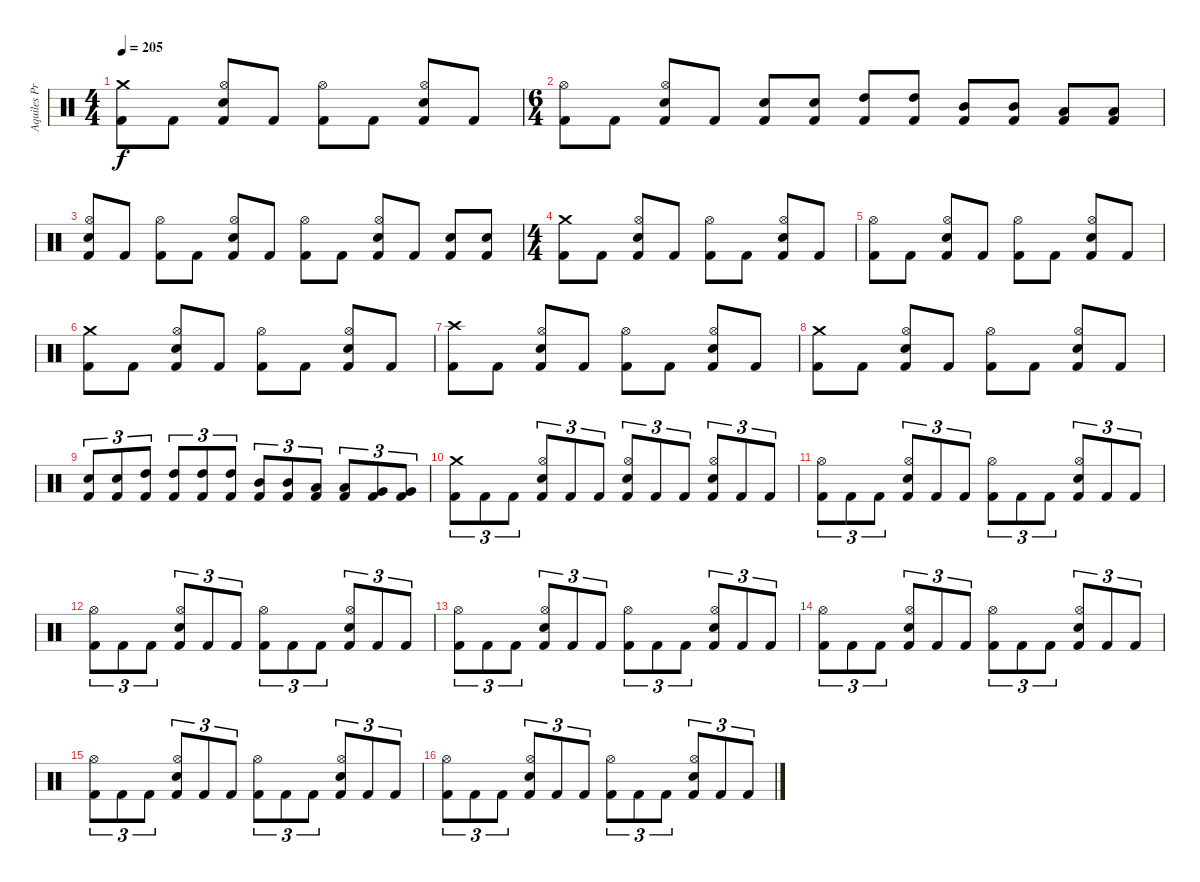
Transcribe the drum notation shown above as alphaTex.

\track ("Aquiles Priester" "Aquiles Pr") {instrument percussion}
\staff {score}
\articulation defaults
\ts (4 4)
\tempo 205
\clef neutral
\ks c
("Crash medium (hit)" "Kick (hit) 2").8{dy f} "Kick (hit) 2".8 ("Hi-Hat (open)" "Electric Snare (hit)" "Kick (hit) 2").8 "Kick (hit) 2".8 ("Hi-Hat (open)" "Kick (hit) 2").8 "Kick (hit) 2".8 ("Hi-Hat (open)" "Electric Snare (hit)" "Kick (hit) 2").8 "Kick (hit) 2".8 |
\ts (6 4)
("Hi-Hat (open)" "Kick (hit) 2").8 "Kick (hit) 2".8 ("Hi-Hat (open)" "Electric Snare (hit)" "Kick (hit) 2").8 "Kick (hit) 2".8 ("Electric Snare (hit)" "Kick (hit) 2").8 ("Electric Snare (hit)" "Kick (hit) 2").8 ("High Tom (hit)" "Kick (hit) 2").8 ("High Tom (hit)" "Kick (hit) 2").8 ("Mid Tom (hit)" "Kick (hit) 2").8 ("Mid Tom (hit)" "Kick (hit) 2").8 ("Low Tom (hit)" "Kick (hit) 2").8 ("Low Tom (hit)" "Kick (hit) 2").8 |
("Hi-Hat (open)" "Electric Snare (hit)" "Kick (hit) 2").8 "Kick (hit) 2".8 ("Hi-Hat (open)" "Kick (hit) 2").8 "Kick (hit) 2".8 ("Hi-Hat (open)" "Electric Snare (hit)" "Kick (hit) 2").8 "Kick (hit) 2".8 ("Hi-Hat (open)" "Kick (hit) 2").8 "Kick (hit) 2".8 ("Hi-Hat (open)" "Electric Snare (hit)" "Kick (hit) 2").8 "Kick (hit) 2".8 ("Electric Snare (hit)" "Kick (hit) 2").8 ("Electric Snare (hit)" "Kick (hit) 2").8 |
\ts (4 4)
("Crash medium (hit)" "Kick (hit) 2").8 "Kick (hit) 2".8 ("Hi-Hat (open)" "Electric Snare (hit)" "Kick (hit) 2").8 "Kick (hit) 2".8 ("Hi-Hat (open)" "Kick (hit) 2").8 "Kick (hit) 2".8 ("Hi-Hat (open)" "Electric Snare (hit)" "Kick (hit) 2").8 "Kick (hit) 2".8 |
("Hi-Hat (open)" "Kick (hit) 2").8 "Kick (hit) 2".8 ("Hi-Hat (open)" "Electric Snare (hit)" "Kick (hit) 2").8 "Kick (hit) 2".8 ("Hi-Hat (open)" "Kick (hit) 2").8 "Kick (hit) 2".8 ("Hi-Hat (open)" "Electric Snare (hit)" "Kick (hit) 2").8 "Kick (hit) 2".8 |
("Crash medium (hit)" "Kick (hit) 2").8 "Kick (hit) 2".8 ("Hi-Hat (open)" "Electric Snare (hit)" "Kick (hit) 2").8 "Kick (hit) 2".8 ("Hi-Hat (open)" "Kick (hit) 2").8 "Kick (hit) 2".8 ("Hi-Hat (open)" "Electric Snare (hit)" "Kick (hit) 2").8 "Kick (hit) 2".8 |
("Crash high (hit)" "Kick (hit) 2").8 "Kick (hit) 2".8 ("Hi-Hat (open)" "Electric Snare (hit)" "Kick (hit) 2").8 "Kick (hit) 2".8 ("Hi-Hat (open)" "Kick (hit) 2").8 "Kick (hit) 2".8 ("Hi-Hat (open)" "Electric Snare (hit)" "Kick (hit) 2").8 "Kick (hit) 2".8 |
("Crash medium (hit)" "Kick (hit) 2").8 "Kick (hit) 2".8 ("Hi-Hat (open)" "Electric Snare (hit)" "Kick (hit) 2").8 "Kick (hit) 2".8 ("Hi-Hat (open)" "Kick (hit) 2").8 "Kick (hit) 2".8 ("Hi-Hat (open)" "Electric Snare (hit)" "Kick (hit) 2").8 "Kick (hit) 2".8 |
("Electric Snare (hit)" "Kick (hit) 2").8{tu (3 2)} ("Electric Snare (hit)" "Kick (hit) 2").8{tu (3 2)} ("High Tom (hit)" "Kick (hit) 2").8{tu (3 2)} ("High Tom (hit)" "Kick (hit) 2").8{tu (3 2)} ("High Tom (hit)" "Kick (hit) 2").8{tu (3 2)} ("High Tom (hit)" "Kick (hit) 2").8{tu (3 2)} ("Mid Tom (hit)" "Kick (hit) 2").8{tu (3 2)} ("Mid Tom (hit)" "Kick (hit) 2").8{tu (3 2)} ("Low Tom (hit)" "Kick (hit) 2").8{tu (3 2)} ("Low Tom (hit)" "Kick (hit) 2").8{tu (3 2)} ("Very Low Tom (hit)" "Kick (hit) 2").8{tu (3 2)} ("Very Low Tom (hit)" "Kick (hit) 2").8{tu (3 2)} |
("Crash medium (hit)" "Kick (hit) 2").8{tu (3 2)} "Kick (hit) 2".8{tu (3 2)} "Kick (hit) 2".8{tu (3 2)} ("Hi-Hat (open)" "Electric Snare (hit)" "Kick (hit) 2").8{tu (3 2)} "Kick (hit) 2".8{tu (3 2)} "Kick (hit) 2".8{tu (3 2)} ("Hi-Hat (open)" "Snare (hit)" "Kick (hit) 2").8{tu (3 2)} "Kick (hit) 2".8{tu (3 2)} "Kick (hit) 2".8{tu (3 2)} ("Hi-Hat (open)" "Electric Snare (hit)" "Kick (hit) 2").8{tu (3 2)} "Kick (hit) 2".8{tu (3 2)} "Kick (hit) 2".8{tu (3 2)} |
("Hi-Hat (open)" "Kick (hit) 2").8{tu (3 2)} "Kick (hit) 2".8{tu (3 2)} "Kick (hit) 2".8{tu (3 2)} ("Hi-Hat (open)" "Electric Snare (hit)" "Kick (hit) 2").8{tu (3 2)} "Kick (hit) 2".8{tu (3 2)} "Kick (hit) 2".8{tu (3 2)} ("Hi-Hat (open)" "Kick (hit) 2").8{tu (3 2)} "Kick (hit) 2".8{tu (3 2)} "Kick (hit) 2".8{tu (3 2)} ("Hi-Hat (open)" "Electric Snare (hit)" "Kick (hit) 2").8{tu (3 2)} "Kick (hit) 2".8{tu (3 2)} "Kick (hit) 2".8{tu (3 2)} |
("Hi-Hat (open)" "Kick (hit) 2").8{tu (3 2)} "Kick (hit) 2".8{tu (3 2)} "Kick (hit) 2".8{tu (3 2)} ("Hi-Hat (open)" "Electric Snare (hit)" "Kick (hit) 2").8{tu (3 2)} "Kick (hit) 2".8{tu (3 2)} "Kick (hit) 2".8{tu (3 2)} ("Hi-Hat (open)" "Kick (hit) 2").8{tu (3 2)} "Kick (hit) 2".8{tu (3 2)} "Kick (hit) 2".8{tu (3 2)} ("Hi-Hat (open)" "Electric Snare (hit)" "Kick (hit) 2").8{tu (3 2)} "Kick (hit) 2".8{tu (3 2)} "Kick (hit) 2".8{tu (3 2)} |
("Hi-Hat (open)" "Kick (hit) 2").8{tu (3 2)} "Kick (hit) 2".8{tu (3 2)} "Kick (hit) 2".8{tu (3 2)} ("Hi-Hat (open)" "Electric Snare (hit)" "Kick (hit) 2").8{tu (3 2)} "Kick (hit) 2".8{tu (3 2)} "Kick (hit) 2".8{tu (3 2)} ("Hi-Hat (open)" "Kick (hit) 2").8{tu (3 2)} "Kick (hit) 2".8{tu (3 2)} "Kick (hit) 2".8{tu (3 2)} ("Hi-Hat (open)" "Electric Snare (hit)" "Kick (hit) 2").8{tu (3 2)} "Kick (hit) 2".8{tu (3 2)} "Kick (hit) 2".8{tu (3 2)} |
("Hi-Hat (open)" "Kick (hit) 2").8{tu (3 2)} "Kick (hit) 2".8{tu (3 2)} "Kick (hit) 2".8{tu (3 2)} ("Hi-Hat (open)" "Electric Snare (hit)" "Kick (hit) 2").8{tu (3 2)} "Kick (hit) 2".8{tu (3 2)} "Kick (hit) 2".8{tu (3 2)} ("Hi-Hat (open)" "Kick (hit) 2").8{tu (3 2)} "Kick (hit) 2".8{tu (3 2)} "Kick (hit) 2".8{tu (3 2)} ("Hi-Hat (open)" "Electric Snare (hit)" "Kick (hit) 2").8{tu (3 2)} "Kick (hit) 2".8{tu (3 2)} "Kick (hit) 2".8{tu (3 2)} |
("Hi-Hat (open)" "Kick (hit) 2").8{tu (3 2)} "Kick (hit) 2".8{tu (3 2)} "Kick (hit) 2".8{tu (3 2)} ("Hi-Hat (open)" "Electric Snare (hit)" "Kick (hit) 2").8{tu (3 2)} "Kick (hit) 2".8{tu (3 2)} "Kick (hit) 2".8{tu (3 2)} ("Hi-Hat (open)" "Kick (hit) 2").8{tu (3 2)} "Kick (hit) 2".8{tu (3 2)} "Kick (hit) 2".8{tu (3 2)} ("Hi-Hat (open)" "Electric Snare (hit)" "Kick (hit) 2").8{tu (3 2)} "Kick (hit) 2".8{tu (3 2)} "Kick (hit) 2".8{tu (3 2)} |
("Hi-Hat (open)" "Kick (hit) 2").8{tu (3 2)} "Kick (hit) 2".8{tu (3 2)} "Kick (hit) 2".8{tu (3 2)} ("Hi-Hat (open)" "Electric Snare (hit)" "Kick (hit) 2").8{tu (3 2)} "Kick (hit) 2".8{tu (3 2)} "Kick (hit) 2".8{tu (3 2)} ("Hi-Hat (open)" "Kick (hit) 2").8{tu (3 2)} "Kick (hit) 2".8{tu (3 2)} "Kick (hit) 2".8{tu (3 2)} ("Hi-Hat (open)" "Electric Snare (hit)" "Kick (hit) 2").8{tu (3 2)} "Kick (hit) 2".8{tu (3 2)} "Kick (hit) 2".8{tu (3 2)}
